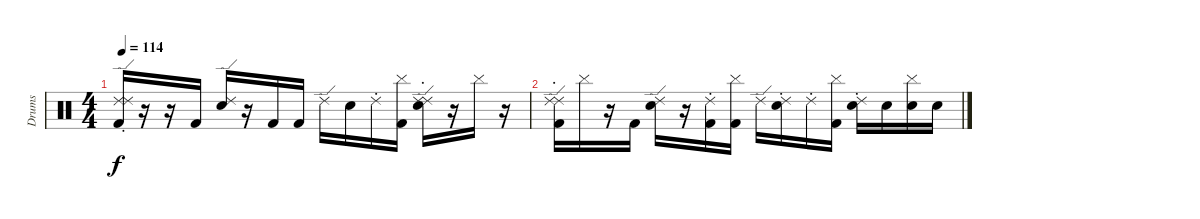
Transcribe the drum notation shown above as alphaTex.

\track ("Drums" "Drums") {instrument percussion}
\staff {score}
\articulation defaults
\ts (4 4)
\tempo 114
\clef neutral
\ks c
("Kick (hit) 2" "Ride (edge) 2" "Ride (choke) 2").16{dy f} r.16 r.16 "Kick (hit) 2".16 ("Electric Snare (hit)" "Ride (edge) 2").16 r.16 "Kick (hit) 2".16 "Kick (hit) 2".16 "Ride (edge) 2".16 "Electric Snare (hit)".16 "Ride (choke) 2".16 ("Kick (hit) 2" "Cymbal (hit)").16 ("Electric Snare (hit)" "Ride (edge) 2" "Ride (choke) 2").16 r.16 "Cymbal (hit)".16 r.16 |
("Kick (hit) 2" "Ride (edge) 2" "Ride (choke) 2").16 "Cymbal (hit)".16 r.16 "Kick (hit) 2".16 ("Electric Snare (hit)" "Ride (edge) 2").16 r.16 ("Kick (hit) 2" "Ride (choke) 2").16 ("Kick (hit) 2" "Cymbal (hit)").16 "Ride (edge) 2".16 ("Electric Snare (hit)" "Ride (choke) 2").16 "Ride (choke) 2".16 ("Kick (hit) 2" "Cymbal (hit)").16 ("Electric Snare (hit)" "Ride (choke) 2").16 "Electric Snare (hit)".16 ("Electric Snare (hit)" "Cymbal (hit)").16 "Electric Snare (hit)".16
